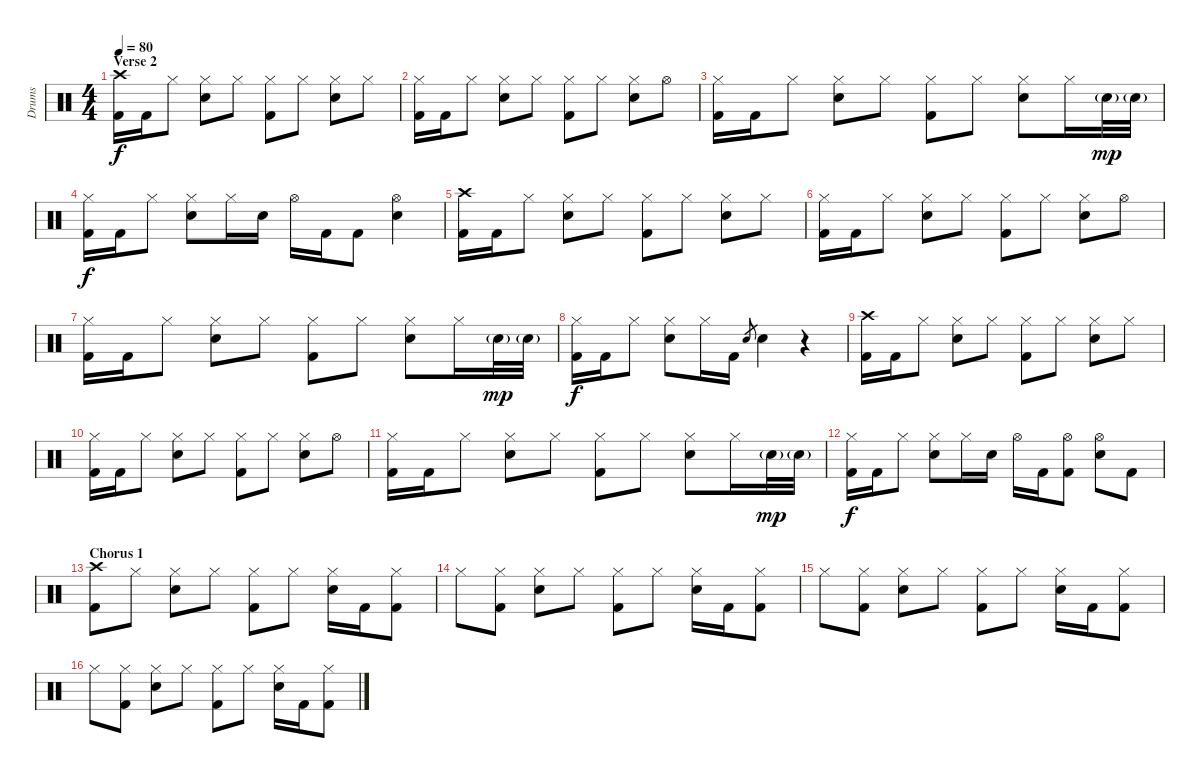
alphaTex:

\track ("Drums" "Drums") {instrument percussion}
\staff {score}
\articulation defaults
\ts (4 4)
\section ("" "Verse 2")
\tempo 80
\clef neutral
\ks c
("Crash high (hit)" "Kick (hit) 2").16{dy f} "Kick (hit) 2".16 "Hi-Hat (closed)".8 ("Hi-Hat (closed)" "Electric Snare (hit)").8 "Hi-Hat (closed)".8 ("Hi-Hat (closed)" "Kick (hit) 2").8 "Hi-Hat (closed)".8 ("Hi-Hat (closed)" "Electric Snare (hit)").8 "Hi-Hat (closed)".8 |
("Hi-Hat (closed)" "Kick (hit) 2").16 "Kick (hit) 2".16 "Hi-Hat (closed)".8 ("Hi-Hat (closed)" "Electric Snare (hit)").8 "Hi-Hat (closed)".8 ("Hi-Hat (closed)" "Kick (hit) 2").8 "Hi-Hat (closed)".8 ("Hi-Hat (closed)" "Electric Snare (hit)").8 "Hi-Hat (open)".8 |
("Hi-Hat (closed)" "Kick (hit) 2").16 "Kick (hit) 2".16 "Hi-Hat (closed)".8 ("Hi-Hat (closed)" "Electric Snare (hit)").8 "Hi-Hat (closed)".8 ("Hi-Hat (closed)" "Kick (hit) 2").8 "Hi-Hat (closed)".8 ("Hi-Hat (closed)" "Electric Snare (hit)").8 "Hi-Hat (closed)".16 "Electric Snare (hit)"{g}.32{dy mp} "Electric Snare (hit)"{g}.32 |
("Hi-Hat (closed)" "Kick (hit) 2").16{dy f} "Kick (hit) 2".16 "Hi-Hat (closed)".8 ("Hi-Hat (closed)" "Electric Snare (hit)").8 "Hi-Hat (closed)".16 "Electric Snare (hit)".16 "Hi-Hat (open)".16 "Kick (hit) 2".16 "Kick (hit) 2".8 ("Hi-Hat (open)" "Electric Snare (hit)").4 |
("Crash high (hit)" "Kick (hit) 2").16 "Kick (hit) 2".16 "Hi-Hat (closed)".8 ("Hi-Hat (closed)" "Electric Snare (hit)").8 "Hi-Hat (closed)".8 ("Hi-Hat (closed)" "Kick (hit) 2").8 "Hi-Hat (closed)".8 ("Hi-Hat (closed)" "Electric Snare (hit)").8 "Hi-Hat (closed)".8 |
("Hi-Hat (closed)" "Kick (hit) 2").16 "Kick (hit) 2".16 "Hi-Hat (closed)".8 ("Hi-Hat (closed)" "Electric Snare (hit)").8 "Hi-Hat (closed)".8 ("Hi-Hat (closed)" "Kick (hit) 2").8 "Hi-Hat (closed)".8 ("Hi-Hat (closed)" "Electric Snare (hit)").8 "Hi-Hat (open)".8 |
("Hi-Hat (closed)" "Kick (hit) 2").16 "Kick (hit) 2".16 "Hi-Hat (closed)".8 ("Hi-Hat (closed)" "Electric Snare (hit)").8 "Hi-Hat (closed)".8 ("Hi-Hat (closed)" "Kick (hit) 2").8 "Hi-Hat (closed)".8 ("Hi-Hat (closed)" "Electric Snare (hit)").8 "Hi-Hat (closed)".16 "Electric Snare (hit)"{g}.32{dy mp} "Electric Snare (hit)"{g}.32 |
("Hi-Hat (closed)" "Kick (hit) 2").16{dy f} "Kick (hit) 2".16 "Hi-Hat (closed)".8 ("Hi-Hat (closed)" "Electric Snare (hit)").8 "Hi-Hat (closed)".16 "Kick (hit) 2".16 "Electric Snare (hit)".8{gr} "Electric Snare (hit)".4 r.4 |
("Crash high (hit)" "Kick (hit) 2").16 "Kick (hit) 2".16 "Hi-Hat (closed)".8 ("Hi-Hat (closed)" "Electric Snare (hit)").8 "Hi-Hat (closed)".8 ("Hi-Hat (closed)" "Kick (hit) 2").8 "Hi-Hat (closed)".8 ("Hi-Hat (closed)" "Electric Snare (hit)").8 "Hi-Hat (closed)".8 |
("Hi-Hat (closed)" "Kick (hit) 2").16 "Kick (hit) 2".16 "Hi-Hat (closed)".8 ("Hi-Hat (closed)" "Electric Snare (hit)").8 "Hi-Hat (closed)".8 ("Hi-Hat (closed)" "Kick (hit) 2").8 "Hi-Hat (closed)".8 ("Hi-Hat (closed)" "Electric Snare (hit)").8 "Hi-Hat (open)".8 |
("Hi-Hat (closed)" "Kick (hit) 2").16 "Kick (hit) 2".16 "Hi-Hat (closed)".8 ("Hi-Hat (closed)" "Electric Snare (hit)").8 "Hi-Hat (closed)".8 ("Hi-Hat (closed)" "Kick (hit) 2").8 "Hi-Hat (closed)".8 ("Hi-Hat (closed)" "Electric Snare (hit)").8 "Hi-Hat (closed)".16 "Electric Snare (hit)"{g}.32{dy mp} "Electric Snare (hit)"{g}.32 |
("Hi-Hat (closed)" "Kick (hit) 2").16{dy f} "Kick (hit) 2".16 "Hi-Hat (closed)".8 ("Hi-Hat (closed)" "Electric Snare (hit)").8 "Hi-Hat (closed)".16 "Electric Snare (hit)".16 "Hi-Hat (open)".16 "Kick (hit) 2".16 ("Hi-Hat (open)" "Kick (hit) 2").8 ("Hi-Hat (open)" "Electric Snare (hit)").8 "Kick (hit) 2".8 |
\section ("" "Chorus 1")
("Crash high (hit)" "Kick (hit) 2").8 "Hi-Hat (closed)".8 ("Hi-Hat (closed)" "Electric Snare (hit)").8 "Hi-Hat (closed)".8 ("Hi-Hat (closed)" "Kick (hit) 2").8 "Hi-Hat (closed)".8 ("Hi-Hat (closed)" "Electric Snare (hit)").16 "Kick (hit) 2".16 ("Hi-Hat (closed)" "Kick (hit) 2").8 |
"Hi-Hat (closed)".8 ("Hi-Hat (closed)" "Kick (hit) 2").8 ("Hi-Hat (closed)" "Electric Snare (hit)").8 "Hi-Hat (closed)".8 ("Hi-Hat (closed)" "Kick (hit) 2").8 "Hi-Hat (closed)".8 ("Hi-Hat (closed)" "Electric Snare (hit)").16 "Kick (hit) 2".16 ("Hi-Hat (closed)" "Kick (hit) 2").8 |
"Hi-Hat (closed)".8 ("Hi-Hat (closed)" "Kick (hit) 2").8 ("Hi-Hat (closed)" "Electric Snare (hit)").8 "Hi-Hat (closed)".8 ("Hi-Hat (closed)" "Kick (hit) 2").8 "Hi-Hat (closed)".8 ("Hi-Hat (closed)" "Electric Snare (hit)").16 "Kick (hit) 2".16 ("Hi-Hat (closed)" "Kick (hit) 2").8 |
"Hi-Hat (closed)".8 ("Hi-Hat (closed)" "Kick (hit) 2").8 ("Hi-Hat (closed)" "Electric Snare (hit)").8 "Hi-Hat (closed)".8 ("Hi-Hat (closed)" "Kick (hit) 2").8 "Hi-Hat (closed)".8 ("Hi-Hat (closed)" "Electric Snare (hit)").16 "Kick (hit) 2".16 ("Hi-Hat (closed)" "Kick (hit) 2").8
